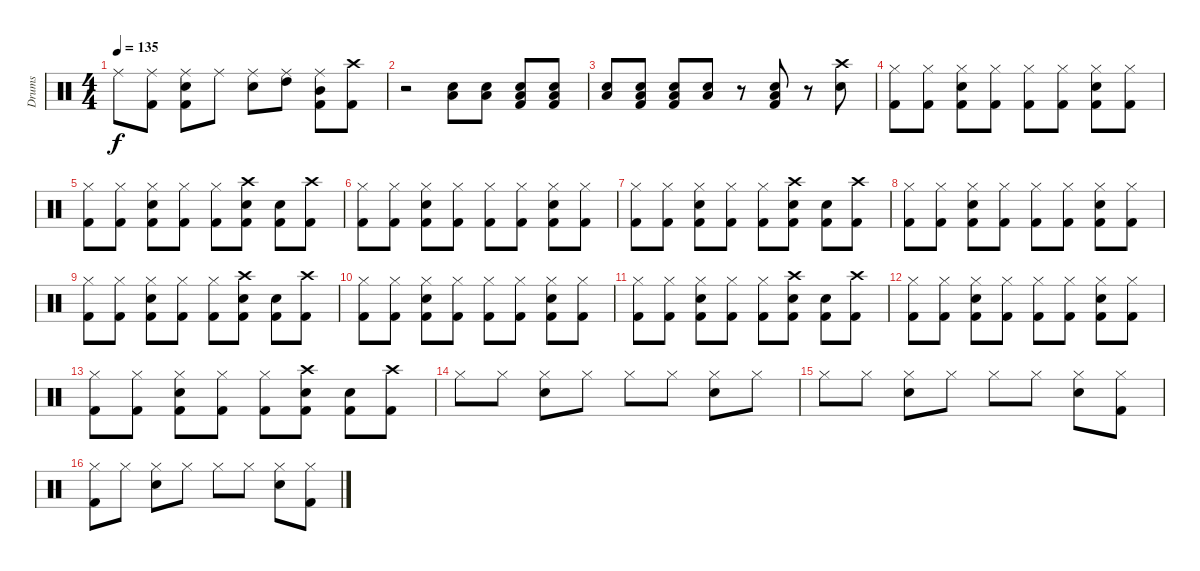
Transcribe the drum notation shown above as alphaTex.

\track ("Drums" "Drums") {instrument percussion}
\staff {score}
\articulation defaults
\ts (4 4)
\tempo 135
\clef neutral
\ks c "Ride (middle)".8{dy f}
("Kick (hit) 2" "Ride (middle)").8 ("Kick (hit) 2" "Snare (hit) 2" "Ride (middle)").8 "Ride (middle)".8 ("Snare (hit) 2" "Ride (middle)").8 ("High Tom (hit)" "Ride (middle)").8 ("Kick (hit) 2" "Mid Tom (hit)" "Ride (middle)").8 ("Kick (hit) 2" "Crash high (hit)").8 |
r.2 ("Snare (hit) 2" "Low Tom (hit)").8 ("Snare (hit) 2" "Low Tom (hit)").8 ("Snare (hit) 2" "Low Tom (hit)" "Kick (hit) 2").8 ("Snare (hit) 2" "Low Tom (hit)" "Kick (hit) 2").8 |
("Snare (hit) 2" "Low Tom (hit)").8 ("Snare (hit) 2" "Low Tom (hit)" "Kick (hit) 2").8 ("Snare (hit) 2" "Low Tom (hit)" "Kick (hit) 2").8 ("Snare (hit) 2" "Low Tom (hit)").8 r.8 ("Snare (hit) 2" "Low Tom (hit)" "Kick (hit) 2").8 r.8 ("Crash high (hit)" "Snare (hit) 2").8 |
("Kick (hit) 2" "Hi-Hat (closed)").8 ("Kick (hit) 2" "Hi-Hat (closed)").8 ("Snare (hit) 2" "Kick (hit) 2" "Hi-Hat (closed)").8 ("Kick (hit) 2" "Hi-Hat (closed)").8 ("Kick (hit) 2" "Hi-Hat (closed)").8 ("Kick (hit) 2" "Hi-Hat (closed)").8 ("Snare (hit) 2" "Kick (hit) 2" "Hi-Hat (closed)").8 ("Kick (hit) 2" "Hi-Hat (closed)").8 |
("Kick (hit) 2" "Hi-Hat (closed)").8 ("Kick (hit) 2" "Hi-Hat (closed)").8 ("Snare (hit) 2" "Kick (hit) 2" "Hi-Hat (closed)").8 ("Kick (hit) 2" "Hi-Hat (closed)").8 ("Kick (hit) 2" "Hi-Hat (closed)").8 ("Kick (hit) 2" "Crash high (hit)" "Snare (hit) 2").8 ("Snare (hit) 2" "Kick (hit) 2").8 ("Kick (hit) 2" "Crash high (hit)").8 |
("Kick (hit) 2" "Hi-Hat (closed)").8 ("Kick (hit) 2" "Hi-Hat (closed)").8 ("Snare (hit) 2" "Kick (hit) 2" "Hi-Hat (closed)").8 ("Kick (hit) 2" "Hi-Hat (closed)").8 ("Kick (hit) 2" "Hi-Hat (closed)").8 ("Kick (hit) 2" "Hi-Hat (closed)").8 ("Snare (hit) 2" "Kick (hit) 2" "Hi-Hat (closed)").8 ("Kick (hit) 2" "Hi-Hat (closed)").8 |
("Kick (hit) 2" "Hi-Hat (closed)").8 ("Kick (hit) 2" "Hi-Hat (closed)").8 ("Snare (hit) 2" "Kick (hit) 2" "Hi-Hat (closed)").8 ("Kick (hit) 2" "Hi-Hat (closed)").8 ("Kick (hit) 2" "Hi-Hat (closed)").8 ("Kick (hit) 2" "Crash high (hit)" "Snare (hit) 2").8 ("Snare (hit) 2" "Kick (hit) 2").8 ("Kick (hit) 2" "Crash high (hit)").8 |
("Kick (hit) 2" "Hi-Hat (closed)").8 ("Kick (hit) 2" "Hi-Hat (closed)").8 ("Snare (hit) 2" "Kick (hit) 2" "Hi-Hat (closed)").8 ("Kick (hit) 2" "Hi-Hat (closed)").8 ("Kick (hit) 2" "Hi-Hat (closed)").8 ("Kick (hit) 2" "Hi-Hat (closed)").8 ("Snare (hit) 2" "Kick (hit) 2" "Hi-Hat (closed)").8 ("Kick (hit) 2" "Hi-Hat (closed)").8 |
("Kick (hit) 2" "Hi-Hat (closed)").8 ("Kick (hit) 2" "Hi-Hat (closed)").8 ("Snare (hit) 2" "Kick (hit) 2" "Hi-Hat (closed)").8 ("Kick (hit) 2" "Hi-Hat (closed)").8 ("Kick (hit) 2" "Hi-Hat (closed)").8 ("Kick (hit) 2" "Crash high (hit)" "Snare (hit) 2").8 ("Snare (hit) 2" "Kick (hit) 2").8 ("Kick (hit) 2" "Crash high (hit)").8 |
("Kick (hit) 2" "Hi-Hat (closed)").8 ("Kick (hit) 2" "Hi-Hat (closed)").8 ("Snare (hit) 2" "Kick (hit) 2" "Hi-Hat (closed)").8 ("Kick (hit) 2" "Hi-Hat (closed)").8 ("Kick (hit) 2" "Hi-Hat (closed)").8 ("Kick (hit) 2" "Hi-Hat (closed)").8 ("Snare (hit) 2" "Kick (hit) 2" "Hi-Hat (closed)").8 ("Kick (hit) 2" "Hi-Hat (closed)").8 |
("Kick (hit) 2" "Hi-Hat (closed)").8 ("Kick (hit) 2" "Hi-Hat (closed)").8 ("Snare (hit) 2" "Kick (hit) 2" "Hi-Hat (closed)").8 ("Kick (hit) 2" "Hi-Hat (closed)").8 ("Kick (hit) 2" "Hi-Hat (closed)").8 ("Kick (hit) 2" "Crash high (hit)" "Snare (hit) 2").8 ("Snare (hit) 2" "Kick (hit) 2").8 ("Kick (hit) 2" "Crash high (hit)").8 |
("Kick (hit) 2" "Hi-Hat (closed)").8 ("Kick (hit) 2" "Hi-Hat (closed)").8 ("Snare (hit) 2" "Kick (hit) 2" "Hi-Hat (closed)").8 ("Kick (hit) 2" "Hi-Hat (closed)").8 ("Kick (hit) 2" "Hi-Hat (closed)").8 ("Kick (hit) 2" "Hi-Hat (closed)").8 ("Snare (hit) 2" "Kick (hit) 2" "Hi-Hat (closed)").8 ("Kick (hit) 2" "Hi-Hat (closed)").8 |
("Kick (hit) 2" "Hi-Hat (closed)").8 ("Kick (hit) 2" "Hi-Hat (closed)").8 ("Snare (hit) 2" "Kick (hit) 2" "Hi-Hat (closed)").8 ("Kick (hit) 2" "Hi-Hat (closed)").8 ("Kick (hit) 2" "Hi-Hat (closed)").8 ("Kick (hit) 2" "Crash high (hit)" "Snare (hit) 2").8 ("Snare (hit) 2" "Kick (hit) 2").8 ("Kick (hit) 2" "Crash high (hit)").8 |
"Hi-Hat (closed)".8 "Hi-Hat (closed)".8 ("Snare (hit) 2" "Hi-Hat (closed)").8 "Hi-Hat (closed)".8 "Hi-Hat (closed)".8 "Hi-Hat (closed)".8 ("Snare (hit) 2" "Hi-Hat (closed)").8 "Hi-Hat (closed)".8 |
"Hi-Hat (closed)".8 "Hi-Hat (closed)".8 ("Snare (hit) 2" "Hi-Hat (closed)").8 "Hi-Hat (closed)".8 "Hi-Hat (closed)".8 "Hi-Hat (closed)".8 ("Snare (hit) 2" "Hi-Hat (closed)").8 ("Kick (hit) 2" "Hi-Hat (closed)").8 |
("Kick (hit) 2" "Hi-Hat (closed)").8 "Hi-Hat (closed)".8 ("Snare (hit) 2" "Hi-Hat (closed)").8 "Hi-Hat (closed)".8 "Hi-Hat (closed)".8 "Hi-Hat (closed)".8 ("Snare (hit) 2" "Hi-Hat (closed)").8 ("Kick (hit) 2" "Hi-Hat (closed)").8
